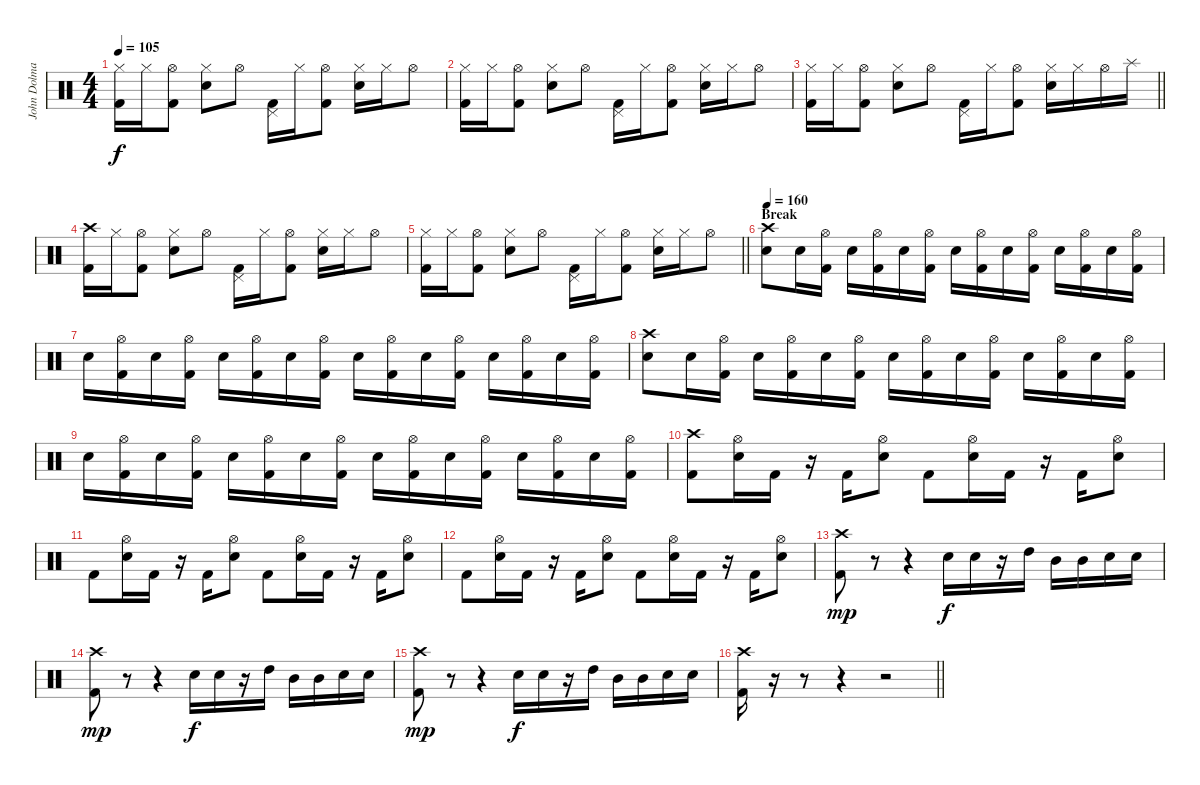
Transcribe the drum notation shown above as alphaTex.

\track ("John Dolmayan" "John Dolma") {instrument percussion}
\staff {score}
\articulation defaults
\ts (4 4)
\tempo 105
\clef neutral
\ks c
("Hi-Hat (closed)" "Kick (hit) 2").16{dy f} "Hi-Hat (closed)".16 ("Hi-Hat (open)" "Kick (hit) 2").8 ("Hi-Hat (closed)" "Electric Snare (hit)").8 "Hi-Hat (open)".8 ("Pedal Hi-Hat (hit)" "Kick (hit) 2").16 "Hi-Hat (closed)".16 ("Hi-Hat (open)" "Kick (hit) 2").8 ("Hi-Hat (closed)" "Electric Snare (hit)").16 "Hi-Hat (closed)".16 "Hi-Hat (open)".8 |
("Hi-Hat (closed)" "Kick (hit) 2").16 "Hi-Hat (closed)".16 ("Hi-Hat (open)" "Kick (hit) 2").8 ("Hi-Hat (closed)" "Electric Snare (hit)").8 "Hi-Hat (open)".8 ("Pedal Hi-Hat (hit)" "Kick (hit) 2").16 "Hi-Hat (closed)".16 ("Hi-Hat (open)" "Kick (hit) 2").8 ("Hi-Hat (closed)" "Electric Snare (hit)").16 "Hi-Hat (closed)".16 "Hi-Hat (open)".8 |
\barLineRight lightlight
("Hi-Hat (closed)" "Kick (hit) 2").16 "Hi-Hat (closed)".16 ("Hi-Hat (open)" "Kick (hit) 2").8 ("Hi-Hat (closed)" "Electric Snare (hit)").8 "Hi-Hat (open)".8 ("Pedal Hi-Hat (hit)" "Kick (hit) 2").16 "Hi-Hat (closed)".16 ("Hi-Hat (open)" "Kick (hit) 2").8 ("Hi-Hat (closed)" "Electric Snare (hit)").16 "Hi-Hat (closed)".16 "Hi-Hat (open)".16 "Splash (hit)".16 |
("Crash high (hit)" "Kick (hit) 2").16 "Hi-Hat (closed)".16 ("Hi-Hat (open)" "Kick (hit) 2").8 ("Hi-Hat (closed)" "Electric Snare (hit)").8 "Hi-Hat (open)".8 ("Pedal Hi-Hat (hit)" "Kick (hit) 2").16 "Hi-Hat (closed)".16 ("Hi-Hat (open)" "Kick (hit) 2").8 ("Hi-Hat (closed)" "Electric Snare (hit)").16 "Hi-Hat (closed)".16 "Hi-Hat (open)".8 |
\barLineRight lightlight
("Hi-Hat (closed)" "Kick (hit) 2").16 "Hi-Hat (closed)".16 ("Hi-Hat (open)" "Kick (hit) 2").8 ("Hi-Hat (closed)" "Electric Snare (hit)").8 "Hi-Hat (open)".8 ("Pedal Hi-Hat (hit)" "Kick (hit) 2").16 "Hi-Hat (closed)".16 ("Hi-Hat (open)" "Kick (hit) 2").8 ("Hi-Hat (closed)" "Electric Snare (hit)").16 "Hi-Hat (closed)".16 "Hi-Hat (open)".8 |
\section ("" "Break")
\tempo 160
("Crash high (hit)" "Electric Snare (hit)").8 "Electric Snare (hit)".16 ("Hi-Hat (open)" "Kick (hit) 2").16 "Electric Snare (hit)".16 ("Hi-Hat (open)" "Kick (hit) 2").16 "Electric Snare (hit)".16 ("Hi-Hat (open)" "Kick (hit) 2").16 "Electric Snare (hit)".16 ("Hi-Hat (open)" "Kick (hit) 2").16 "Electric Snare (hit)".16 ("Hi-Hat (open)" "Kick (hit) 2").16 "Electric Snare (hit)".16 ("Hi-Hat (open)" "Kick (hit) 2").16 "Electric Snare (hit)".16 ("Hi-Hat (open)" "Kick (hit) 2").16 |
"Electric Snare (hit)".16 ("Hi-Hat (open)" "Kick (hit) 2").16 "Electric Snare (hit)".16 ("Hi-Hat (open)" "Kick (hit) 2").16 "Electric Snare (hit)".16 ("Hi-Hat (open)" "Kick (hit) 2").16 "Electric Snare (hit)".16 ("Hi-Hat (open)" "Kick (hit) 2").16 "Electric Snare (hit)".16 ("Hi-Hat (open)" "Kick (hit) 2").16 "Electric Snare (hit)".16 ("Hi-Hat (open)" "Kick (hit) 2").16 "Electric Snare (hit)".16 ("Hi-Hat (open)" "Kick (hit) 2").16 "Electric Snare (hit)".16 ("Hi-Hat (open)" "Kick (hit) 2").16 |
("Crash high (hit)" "Electric Snare (hit)").8 "Electric Snare (hit)".16 ("Hi-Hat (open)" "Kick (hit) 2").16 "Electric Snare (hit)".16 ("Hi-Hat (open)" "Kick (hit) 2").16 "Electric Snare (hit)".16 ("Hi-Hat (open)" "Kick (hit) 2").16 "Electric Snare (hit)".16 ("Hi-Hat (open)" "Kick (hit) 2").16 "Electric Snare (hit)".16 ("Hi-Hat (open)" "Kick (hit) 2").16 "Electric Snare (hit)".16 ("Hi-Hat (open)" "Kick (hit) 2").16 "Electric Snare (hit)".16 ("Hi-Hat (open)" "Kick (hit) 2").16 |
"Electric Snare (hit)".16 ("Hi-Hat (open)" "Kick (hit) 2").16 "Electric Snare (hit)".16 ("Hi-Hat (open)" "Kick (hit) 2").16 "Electric Snare (hit)".16 ("Hi-Hat (open)" "Kick (hit) 2").16 "Electric Snare (hit)".16 ("Hi-Hat (open)" "Kick (hit) 2").16 "Electric Snare (hit)".16 ("Hi-Hat (open)" "Kick (hit) 2").16 "Electric Snare (hit)".16 ("Hi-Hat (open)" "Kick (hit) 2").16 "Electric Snare (hit)".16 ("Hi-Hat (open)" "Kick (hit) 2").16 "Electric Snare (hit)".16 ("Hi-Hat (open)" "Kick (hit) 2").16 |
("Crash high (hit)" "Kick (hit) 2").8 ("Hi-Hat (open)" "Electric Snare (hit)").16 "Kick (hit) 2".16 r.16 "Kick (hit) 2".16 ("Hi-Hat (open)" "Electric Snare (hit)").8 "Kick (hit) 2".8 ("Hi-Hat (open)" "Electric Snare (hit)").16 "Kick (hit) 2".16 r.16 "Kick (hit) 2".16 ("Hi-Hat (open)" "Electric Snare (hit)").8 |
"Kick (hit) 2".8 ("Hi-Hat (open)" "Electric Snare (hit)").16 "Kick (hit) 2".16 r.16 "Kick (hit) 2".16 ("Hi-Hat (open)" "Electric Snare (hit)").8 "Kick (hit) 2".8 ("Hi-Hat (open)" "Electric Snare (hit)").16 "Kick (hit) 2".16 r.16 "Kick (hit) 2".16 ("Hi-Hat (open)" "Electric Snare (hit)").8 |
"Kick (hit) 2".8 ("Hi-Hat (open)" "Electric Snare (hit)").16 "Kick (hit) 2".16 r.16 "Kick (hit) 2".16 ("Hi-Hat (open)" "Electric Snare (hit)").8 "Kick (hit) 2".8 ("Hi-Hat (open)" "Electric Snare (hit)").16 "Kick (hit) 2".16 r.16 "Kick (hit) 2".16 ("Hi-Hat (open)" "Electric Snare (hit)").8 |
("Crash high (hit)" "Kick (hit) 2").8{dy mp} r.8 r.4 "Electric Snare (hit)".16{dy f} "Electric Snare (hit)".16 r.16 "High Tom (hit)".16 "Mid Tom (hit)".16 "Mid Tom (hit)".16 "Electric Snare (hit)".16 "Electric Snare (hit)".16 |
("Crash high (hit)" "Kick (hit) 2").8{dy mp} r.8 r.4 "Electric Snare (hit)".16{dy f} "Electric Snare (hit)".16 r.16 "High Tom (hit)".16 "Mid Tom (hit)".16 "Mid Tom (hit)".16 "Electric Snare (hit)".16 "Electric Snare (hit)".16 |
("Crash high (hit)" "Kick (hit) 2").8{dy mp} r.8 r.4 "Electric Snare (hit)".16{dy f} "Electric Snare (hit)".16 r.16 "High Tom (hit)".16 "Mid Tom (hit)".16 "Mid Tom (hit)".16 "Electric Snare (hit)".16 "Electric Snare (hit)".16 |
\barLineRight lightlight
("Crash high (hit)" "Kick (hit) 2").16 r.16 r.8 r.4 r.2
